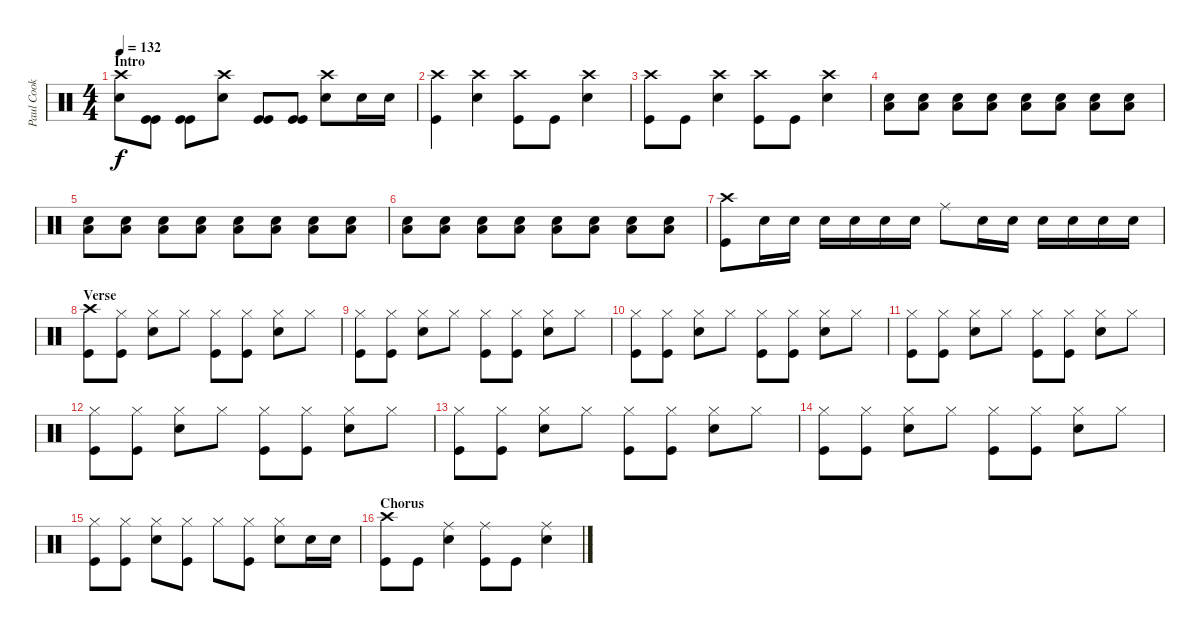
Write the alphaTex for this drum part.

\track ("Paul Cook" "Paul Cook") {instrument percussion}
\staff {score}
\articulation defaults
\ts (4 4)
\section ("" "Intro")
\tempo 132
\clef neutral
\ks c
("Crash high (hit)" "Snare (hit) 2").8{dy f} ("Kick (hit)" "Kick (hit)").8 ("Kick (hit)" "Kick (hit)").8 ("Crash high (hit)" "Snare (hit) 2").8 ("Kick (hit)" "Kick (hit)").8 ("Kick (hit)" "Kick (hit)").8 ("Crash high (hit)" "Snare (hit) 2").8 "Snare (hit) 2".16 "Snare (hit) 2".16 |
("Crash high (hit)" "Kick (hit)").4 ("Crash high (hit)" "Snare (hit) 2").4 ("Crash high (hit)" "Kick (hit)").8 "Kick (hit)".8 ("Crash high (hit)" "Snare (hit) 2").4 |
("Crash high (hit)" "Kick (hit)").8 "Kick (hit)".8 ("Crash high (hit)" "Snare (hit) 2").4 ("Crash high (hit)" "Kick (hit)").8 "Kick (hit)".8 ("Crash high (hit)" "Snare (hit) 2").4 |
("Low Floor Tom (hit)" "Snare (hit) 2").8 ("Low Floor Tom (hit)" "Snare (hit) 2").8 ("Low Floor Tom (hit)" "Snare (hit) 2").8 ("Low Floor Tom (hit)" "Snare (hit) 2").8 ("Low Floor Tom (hit)" "Snare (hit) 2").8 ("Low Floor Tom (hit)" "Snare (hit) 2").8 ("Low Floor Tom (hit)" "Snare (hit) 2").8 ("Low Floor Tom (hit)" "Snare (hit) 2").8 |
("Low Floor Tom (hit)" "Snare (hit) 2").8 ("Low Floor Tom (hit)" "Snare (hit) 2").8 ("Low Floor Tom (hit)" "Snare (hit) 2").8 ("Low Floor Tom (hit)" "Snare (hit) 2").8 ("Low Floor Tom (hit)" "Snare (hit) 2").8 ("Low Floor Tom (hit)" "Snare (hit) 2").8 ("Low Floor Tom (hit)" "Snare (hit) 2").8 ("Low Floor Tom (hit)" "Snare (hit) 2").8 |
("Low Floor Tom (hit)" "Snare (hit) 2").8 ("Low Floor Tom (hit)" "Snare (hit) 2").8 ("Low Floor Tom (hit)" "Snare (hit) 2").8 ("Low Floor Tom (hit)" "Snare (hit) 2").8 ("Low Floor Tom (hit)" "Snare (hit) 2").8 ("Low Floor Tom (hit)" "Snare (hit) 2").8 ("Low Floor Tom (hit)" "Snare (hit) 2").8 ("Low Floor Tom (hit)" "Snare (hit) 2").8 |
("Crash high (hit)" "Kick (hit)").8 "Snare (hit) 2".16 "Snare (hit) 2".16 "Snare (hit) 2".16 "Snare (hit) 2".16 "Snare (hit) 2".16 "Snare (hit) 2".16 "Ride (middle)".8 "Snare (hit) 2".16 "Snare (hit) 2".16 "Snare (hit) 2".16 "Snare (hit) 2".16 "Snare (hit) 2".16 "Snare (hit) 2".16 |
\section ("" "Verse")
("Crash high (hit)" "Kick (hit)").8 ("Hi-Hat (closed)" "Kick (hit)").8 ("Hi-Hat (closed)" "Snare (hit) 2").8 "Hi-Hat (closed)".8 ("Hi-Hat (closed)" "Kick (hit)").8 ("Hi-Hat (closed)" "Kick (hit)").8 ("Hi-Hat (closed)" "Snare (hit) 2").8 "Hi-Hat (closed)".8 |
("Hi-Hat (closed)" "Kick (hit)").8 ("Hi-Hat (closed)" "Kick (hit)").8 ("Hi-Hat (closed)" "Snare (hit) 2").8 "Hi-Hat (closed)".8 ("Hi-Hat (closed)" "Kick (hit)").8 ("Hi-Hat (closed)" "Kick (hit)").8 ("Hi-Hat (closed)" "Snare (hit) 2").8 "Hi-Hat (closed)".8 |
("Hi-Hat (closed)" "Kick (hit)").8 ("Hi-Hat (closed)" "Kick (hit)").8 ("Hi-Hat (closed)" "Snare (hit) 2").8 "Hi-Hat (closed)".8 ("Hi-Hat (closed)" "Kick (hit)").8 ("Hi-Hat (closed)" "Kick (hit)").8 ("Hi-Hat (closed)" "Snare (hit) 2").8 "Hi-Hat (closed)".8 |
("Hi-Hat (closed)" "Kick (hit)").8 ("Hi-Hat (closed)" "Kick (hit)").8 ("Hi-Hat (closed)" "Snare (hit) 2").8 "Hi-Hat (closed)".8 ("Hi-Hat (closed)" "Kick (hit)").8 ("Hi-Hat (closed)" "Kick (hit)").8 ("Hi-Hat (closed)" "Snare (hit) 2").8 "Hi-Hat (closed)".8 |
("Hi-Hat (closed)" "Kick (hit)").8 ("Hi-Hat (closed)" "Kick (hit)").8 ("Hi-Hat (closed)" "Snare (hit) 2").8 "Hi-Hat (closed)".8 ("Hi-Hat (closed)" "Kick (hit)").8 ("Hi-Hat (closed)" "Kick (hit)").8 ("Hi-Hat (closed)" "Snare (hit) 2").8 "Hi-Hat (closed)".8 |
("Hi-Hat (closed)" "Kick (hit)").8 ("Hi-Hat (closed)" "Kick (hit)").8 ("Hi-Hat (closed)" "Snare (hit) 2").8 "Hi-Hat (closed)".8 ("Hi-Hat (closed)" "Kick (hit)").8 ("Hi-Hat (closed)" "Kick (hit)").8 ("Hi-Hat (closed)" "Snare (hit) 2").8 "Hi-Hat (closed)".8 |
("Hi-Hat (closed)" "Kick (hit)").8 ("Hi-Hat (closed)" "Kick (hit)").8 ("Hi-Hat (closed)" "Snare (hit) 2").8 "Hi-Hat (closed)".8 ("Hi-Hat (closed)" "Kick (hit)").8 ("Hi-Hat (closed)" "Kick (hit)").8 ("Hi-Hat (closed)" "Snare (hit) 2").8 "Hi-Hat (closed)".8 |
("Hi-Hat (closed)" "Kick (hit)").8 ("Hi-Hat (closed)" "Kick (hit)").8 ("Hi-Hat (closed)" "Snare (hit) 2").8 ("Hi-Hat (closed)" "Kick (hit)").8 "Hi-Hat (closed)".8 ("Hi-Hat (closed)" "Kick (hit)").8 ("Hi-Hat (closed)" "Snare (hit) 2").8 "Snare (hit) 2".16 "Snare (hit) 2".16 |
\section ("" "Chorus")
("Crash high (hit)" "Kick (hit)").8 "Kick (hit)".8 ("Ride (middle)" "Snare (hit) 2").4 ("Ride (middle)" "Kick (hit)").8 "Kick (hit)".8 ("Ride (middle)" "Snare (hit) 2").4
